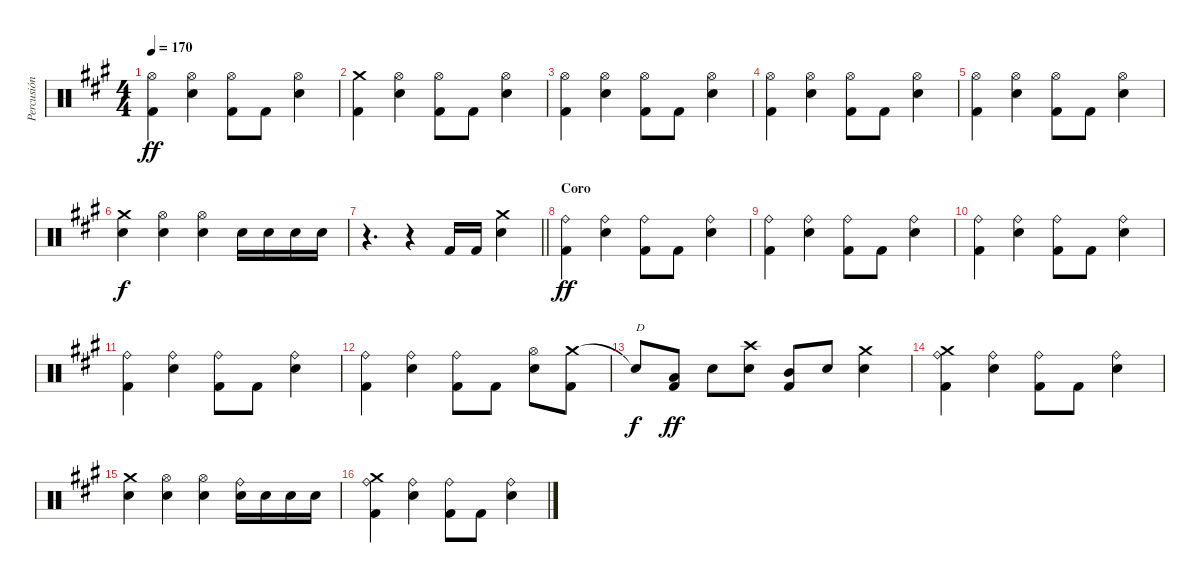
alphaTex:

\track ("Percusión" "Percusión") {instrument percussion}
\staff {score}
\articulation defaults
\ts (4 4)
\tempo 170
\clef neutral
\ks a
("Hi-Hat (open)" "Kick (hit) 2").4{dy ff} ("Hi-Hat (open)" "Electric Snare (hit)").4 ("Hi-Hat (open)" "Kick (hit) 2").8 "Kick (hit) 2".8 ("Hi-Hat (open)" "Electric Snare (hit)").4 |
("Crash medium (hit)" "Kick (hit) 2").4 ("Hi-Hat (open)" "Electric Snare (hit)").4 ("Hi-Hat (open)" "Kick (hit) 2").8 "Kick (hit) 2".8 ("Hi-Hat (open)" "Electric Snare (hit)").4 |
("Hi-Hat (open)" "Kick (hit) 2").4 ("Hi-Hat (open)" "Electric Snare (hit)").4 ("Hi-Hat (open)" "Kick (hit) 2").8 "Kick (hit) 2".8 ("Hi-Hat (open)" "Electric Snare (hit)").4 |
("Hi-Hat (open)" "Kick (hit) 2").4 ("Hi-Hat (open)" "Electric Snare (hit)").4 ("Hi-Hat (open)" "Kick (hit) 2").8 "Kick (hit) 2".8 ("Hi-Hat (open)" "Electric Snare (hit)").4 |
("Hi-Hat (open)" "Kick (hit) 2").4 ("Hi-Hat (open)" "Electric Snare (hit)").4 ("Hi-Hat (open)" "Kick (hit) 2").8 "Kick (hit) 2".8 ("Hi-Hat (open)" "Electric Snare (hit)").4 |
("Crash medium (hit)" "Electric Snare (hit)").4{dy f} ("Hi-Hat (open)" "Electric Snare (hit)").4 ("Hi-Hat (open)" "Electric Snare (hit)").4 "Electric Snare (hit)".16 "Electric Snare (hit)".16 "Electric Snare (hit)".16 "Electric Snare (hit)".16 |
\barLineRight lightlight
r.4{d} r.4 "Kick (hit) 2".16 "Kick (hit) 2".16 ("Crash medium (hit)" "Electric Snare (hit)").4 |
\section ("" "Coro")
("Ride (bell)" "Kick (hit) 2").4{dy ff} ("Ride (bell)" "Electric Snare (hit)").4 ("Ride (bell)" "Kick (hit) 2").8 "Kick (hit) 2".8 ("Ride (bell)" "Electric Snare (hit)").4 |
("Ride (bell)" "Kick (hit) 2").4 ("Ride (bell)" "Electric Snare (hit)").4 ("Ride (bell)" "Kick (hit) 2").8 "Kick (hit) 2".8 ("Ride (bell)" "Electric Snare (hit)").4 |
("Ride (bell)" "Kick (hit) 2").4 ("Ride (bell)" "Electric Snare (hit)").4 ("Ride (bell)" "Kick (hit) 2").8 "Kick (hit) 2".8 ("Ride (bell)" "Electric Snare (hit)").4 |
("Ride (bell)" "Kick (hit) 2").4 ("Ride (bell)" "Electric Snare (hit)").4 ("Ride (bell)" "Kick (hit) 2").8 "Kick (hit) 2".8 ("Ride (bell)" "Electric Snare (hit)").4 |
("Ride (bell)" "Kick (hit) 2").4 ("Ride (bell)" "Electric Snare (hit)").4 ("Ride (bell)" "Kick (hit) 2").8 "Kick (hit) 2".8 ("Hi-Hat (open)" "Electric Snare (hit)").8 ("Crash medium (hit)" "Kick (hit) 2").8 |
"Snare (hit)"{t}.8{txt "D" dy f} ("Low Tom (hit)" "Kick (hit) 2").8{dy ff} "Electric Snare (hit)".8 ("Crash high (hit)" "Electric Snare (hit)").8 ("Mid Tom (hit)" "Kick (hit) 2").8 "Electric Snare (hit)".8 ("Crash medium (hit)" "Electric Snare (hit)").4 |
("Crash medium (hit)" "Ride (bell)" "Kick (hit) 2").4 ("Ride (bell)" "Electric Snare (hit)").4 ("Ride (bell)" "Kick (hit) 2").8 "Kick (hit) 2".8 ("Ride (bell)" "Electric Snare (hit)").4 |
("Crash medium (hit)" "Electric Snare (hit)").4 ("Hi-Hat (open)" "Electric Snare (hit)").4 ("Hi-Hat (open)" "Electric Snare (hit)").4 ("Ride (bell)" "Electric Snare (hit)").16 "Electric Snare (hit)".16 "Electric Snare (hit)".16 "Electric Snare (hit)".16 |
("Crash medium (hit)" "Ride (bell)" "Kick (hit) 2").4 ("Ride (bell)" "Electric Snare (hit)").4 ("Ride (bell)" "Kick (hit) 2").8 "Kick (hit) 2".8 ("Ride (bell)" "Electric Snare (hit)").4
